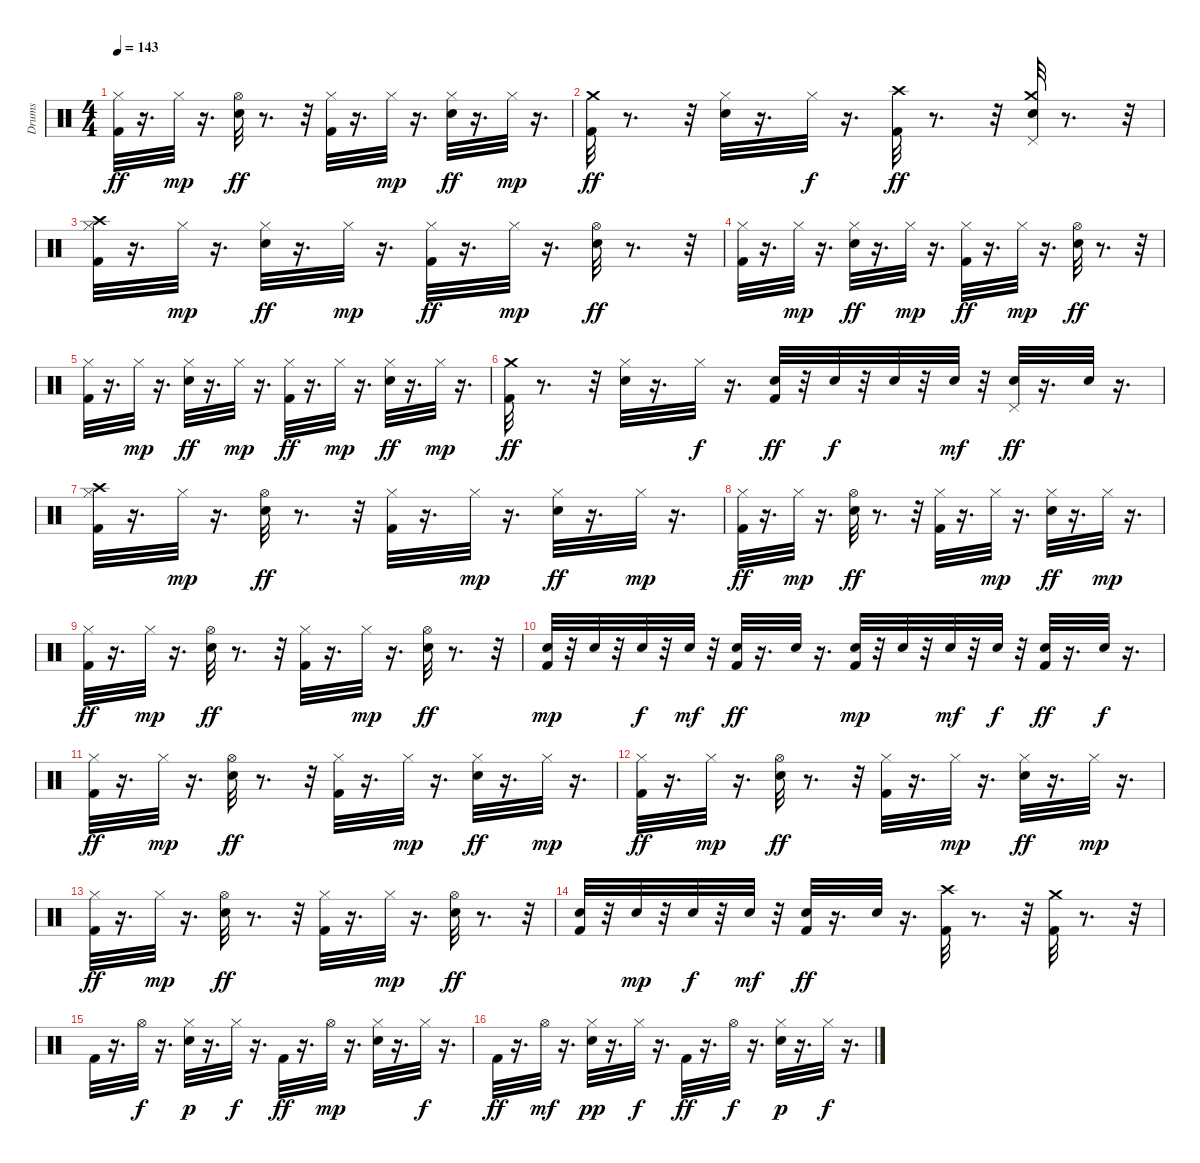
\track ("Drums" "Drums") {instrument percussion}
\staff {score}
\articulation defaults
\ts (4 4)
\tempo 143
\clef neutral
\ks c
("Kick (hit) 2" "Hi-Hat (closed)").32{dy ff} r.16{d} "Hi-Hat (closed)".32{dy mp} r.16{d} ("Snare (hit) 2" "Hi-Hat (open)").32{dy ff} r.8{d} r.32 ("Kick (hit) 2" "Hi-Hat (closed)").32 r.16{d} "Hi-Hat (closed)".32{dy mp} r.16{d} ("Snare (hit) 2" "Hi-Hat (closed)").32{dy ff} r.16{d} "Hi-Hat (closed)".32{dy mp} r.16{d} |
("Kick (hit) 2" "Crash medium (hit)").32{dy ff} r.8{d} r.32 ("Snare (hit) 2" "Hi-Hat (closed)").32 r.16{d} "Hi-Hat (closed)".32{dy f} r.16{d} ("Kick (hit) 2" "Crash high (hit)").32{dy ff} r.8{d} r.32 ("Crash medium (hit)" "Snare (hit) 2" "Pedal Hi-Hat (hit)").32 r.8{d} r.32 |
("Kick (hit) 2" "Crash high (hit)" "Hi-Hat (closed)").32 r.16{d} "Hi-Hat (closed)".32{dy mp} r.16{d} ("Snare (hit) 2" "Hi-Hat (closed)").32{dy ff} r.16{d} "Hi-Hat (closed)".32{dy mp} r.16{d} ("Kick (hit) 2" "Hi-Hat (closed)").32{dy ff} r.16{d} "Hi-Hat (closed)".32{dy mp} r.16{d} ("Snare (hit) 2" "Hi-Hat (open)").32{dy ff} r.8{d} r.32 |
("Kick (hit) 2" "Hi-Hat (closed)").32 r.16{d} "Hi-Hat (closed)".32{dy mp} r.16{d} ("Snare (hit) 2" "Hi-Hat (closed)").32{dy ff} r.16{d} "Hi-Hat (closed)".32{dy mp} r.16{d} ("Kick (hit) 2" "Hi-Hat (closed)").32{dy ff} r.16{d} "Hi-Hat (closed)".32{dy mp} r.16{d} ("Snare (hit) 2" "Hi-Hat (open)").32{dy ff} r.8{d} r.32 |
("Kick (hit) 2" "Hi-Hat (closed)").32 r.16{d} "Hi-Hat (closed)".32{dy mp} r.16{d} ("Snare (hit) 2" "Hi-Hat (closed)").32{dy ff} r.16{d} "Hi-Hat (closed)".32{dy mp} r.16{d} ("Kick (hit) 2" "Hi-Hat (closed)").32{dy ff} r.16{d} "Hi-Hat (closed)".32{dy mp} r.16{d} ("Snare (hit) 2" "Hi-Hat (closed)").32{dy ff} r.16{d} "Hi-Hat (closed)".32{dy mp} r.16{d} |
("Kick (hit) 2" "Crash medium (hit)").32{dy ff} r.8{d} r.32 ("Snare (hit) 2" "Hi-Hat (closed)").32 r.16{d} "Hi-Hat (closed)".32{dy f} r.16{d} ("Kick (hit) 2" "Snare (hit) 2").32{dy ff} r.32 "Snare (hit) 2".32{dy f} r.32 "Snare (hit) 2".32 r.32 "Snare (hit) 2".32{dy mf} r.32 ("Snare (hit) 2" "Pedal Hi-Hat (hit)").32{dy ff} r.16{d} "Snare (hit) 2".32 r.16{d} |
("Kick (hit) 2" "Crash high (hit)" "Hi-Hat (closed)").32 r.16{d} "Hi-Hat (closed)".32{dy mp} r.16{d} ("Snare (hit) 2" "Hi-Hat (open)").32{dy ff} r.8{d} r.32 ("Kick (hit) 2" "Hi-Hat (closed)").32 r.16{d} "Hi-Hat (closed)".32{dy mp} r.16{d} ("Snare (hit) 2" "Hi-Hat (closed)").32{dy ff} r.16{d} "Hi-Hat (closed)".32{dy mp} r.16{d} |
("Kick (hit) 2" "Hi-Hat (closed)").32{dy ff} r.16{d} "Hi-Hat (closed)".32{dy mp} r.16{d} ("Snare (hit) 2" "Hi-Hat (open)").32{dy ff} r.8{d} r.32 ("Kick (hit) 2" "Hi-Hat (closed)").32 r.16{d} "Hi-Hat (closed)".32{dy mp} r.16{d} ("Snare (hit) 2" "Hi-Hat (closed)").32{dy ff} r.16{d} "Hi-Hat (closed)".32{dy mp} r.16{d} |
("Kick (hit) 2" "Hi-Hat (closed)").32{dy ff} r.16{d} "Hi-Hat (closed)".32{dy mp} r.16{d} ("Snare (hit) 2" "Hi-Hat (open)").32{dy ff} r.8{d} r.32 ("Kick (hit) 2" "Hi-Hat (closed)").32 r.16{d} "Hi-Hat (closed)".32{dy mp} r.16{d} ("Snare (hit) 2" "Hi-Hat (open)").32{dy ff} r.8{d} r.32 |
("Kick (hit) 2" "Snare (hit) 2").32{dy mp} r.32 "Snare (hit) 2".32 r.32 "Snare (hit) 2".32{dy f} r.32 "Snare (hit) 2".32{dy mf} r.32 ("Kick (hit) 2" "Snare (hit) 2").32{dy ff} r.16{d} "Snare (hit) 2".32 r.16{d} ("Kick (hit) 2" "Snare (hit) 2").32{dy mp} r.32 "Snare (hit) 2".32 r.32 "Snare (hit) 2".32{dy mf} r.32 "Snare (hit) 2".32{dy f} r.32 ("Kick (hit) 2" "Snare (hit) 2").32{dy ff} r.16{d} "Snare (hit) 2".32{dy f} r.16{d} |
("Kick (hit) 2" "Hi-Hat (closed)").32{dy ff} r.16{d} "Hi-Hat (closed)".32{dy mp} r.16{d} ("Snare (hit) 2" "Hi-Hat (open)").32{dy ff} r.8{d} r.32 ("Kick (hit) 2" "Hi-Hat (closed)").32 r.16{d} "Hi-Hat (closed)".32{dy mp} r.16{d} ("Snare (hit) 2" "Hi-Hat (closed)").32{dy ff} r.16{d} "Hi-Hat (closed)".32{dy mp} r.16{d} |
("Kick (hit) 2" "Hi-Hat (closed)").32{dy ff} r.16{d} "Hi-Hat (closed)".32{dy mp} r.16{d} ("Snare (hit) 2" "Hi-Hat (open)").32{dy ff} r.8{d} r.32 ("Kick (hit) 2" "Hi-Hat (closed)").32 r.16{d} "Hi-Hat (closed)".32{dy mp} r.16{d} ("Snare (hit) 2" "Hi-Hat (closed)").32{dy ff} r.16{d} "Hi-Hat (closed)".32{dy mp} r.16{d} |
("Kick (hit) 2" "Hi-Hat (closed)").32{dy ff} r.16{d} "Hi-Hat (closed)".32{dy mp} r.16{d} ("Snare (hit) 2" "Hi-Hat (open)").32{dy ff} r.8{d} r.32 ("Kick (hit) 2" "Hi-Hat (closed)").32 r.16{d} "Hi-Hat (closed)".32{dy mp} r.16{d} ("Snare (hit) 2" "Hi-Hat (open)").32{dy ff} r.8{d} r.32 |
("Snare (hit) 2" "Kick (hit) 2").32 r.32 "Snare (hit) 2".32{dy mp} r.32 "Snare (hit) 2".32{dy f} r.32 "Snare (hit) 2".32{dy mf} r.32 ("Kick (hit) 2" "Snare (hit) 2").32{dy ff} r.16{d} "Snare (hit) 2".32 r.16{d} ("Kick (hit) 2" "Crash high (hit)").32 r.8{d} r.32 ("Kick (hit) 2" "Crash medium (hit)").32 r.8{d} r.32 |
"Kick (hit) 2".32 r.16{d} "Hi-Hat (open)".32{dy f} r.16{d} ("Snare (hit) 2" "Hi-Hat (closed)").32{dy p} r.16{d} "Hi-Hat (closed)".32{dy f} r.16{d} "Kick (hit) 2".32{dy ff} r.16{d} "Hi-Hat (open)".32{dy mp} r.16{d} ("Snare (hit) 2" "Hi-Hat (closed)").32 r.16{d} "Hi-Hat (closed)".32{dy f} r.16{d} |
"Kick (hit) 2".32{dy ff} r.16{d} "Hi-Hat (open)".32{dy mf} r.16{d} ("Snare (hit) 2" "Hi-Hat (closed)").32{dy pp} r.16{d} "Hi-Hat (closed)".32{dy f} r.16{d} "Kick (hit) 2".32{dy ff} r.16{d} "Hi-Hat (open)".32{dy f} r.16{d} ("Snare (hit) 2" "Hi-Hat (closed)").32{dy p} r.16{d} "Hi-Hat (closed)".32{dy f} r.16{d}
